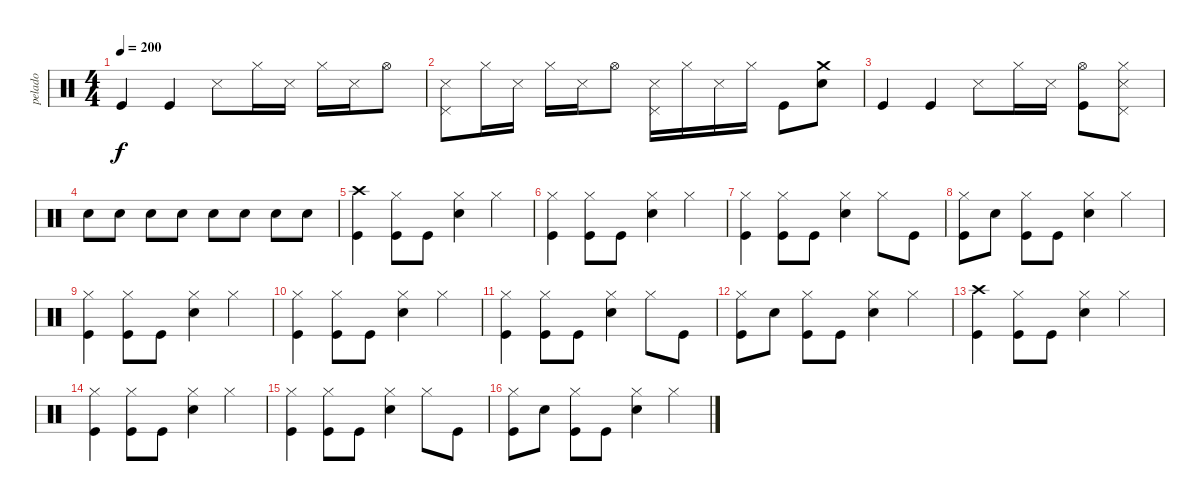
\track ("pelado" "pelado") {instrument percussion}
\staff {score}
\articulation defaults
\ts (4 4)
\tempo 200
\clef neutral
\ks c "Kick (hit)".4{dy f} "Kick (hit)".4 "Snare (side stick) 3".8 "Hi-Hat (closed)".16 "Snare (side stick) 3".16 "Hi-Hat (closed)".16 "Snare (side stick) 3".16 "Hi-Hat (open)".8
|
("Snare (side stick) 3" "Pedal Hi-Hat (hit)").8 "Hi-Hat (closed)".16 "Snare (side stick) 3".16 "Hi-Hat (closed)".16 "Snare (side stick) 3".16 "Hi-Hat (open)".8 ("Snare (side stick) 3" "Pedal Hi-Hat (hit)").16 "Hi-Hat (closed)".16 "Snare (side stick) 3".16 "Hi-Hat (closed)".16 "Kick (hit)".8 ("Crash medium (hit)" "Electric Snare (hit)").8 |
"Kick (hit)".4 "Kick (hit)".4 "Snare (side stick) 3".8 "Hi-Hat (closed)".16 "Snare (side stick) 3".16 ("Hi-Hat (open)" "Kick (hit)").8 ("Hi-Hat (closed)" "Snare (side stick) 3" "Pedal Hi-Hat (hit)").8 |
"Electric Snare (hit)".8 "Electric Snare (hit)".8 "Electric Snare (hit)".8 "Electric Snare (hit)".8 "Electric Snare (hit)".8 "Electric Snare (hit)".8 "Electric Snare (hit)".8 "Electric Snare (hit)".8 |
("Crash high (hit)" "Kick (hit)").4 ("Hi-Hat (closed)" "Kick (hit)").8 "Kick (hit)".8 ("Hi-Hat (closed)" "Electric Snare (hit)").4 "Hi-Hat (closed)".4 |
("Hi-Hat (closed)" "Kick (hit)").4 ("Hi-Hat (closed)" "Kick (hit)").8 "Kick (hit)".8 ("Hi-Hat (closed)" "Electric Snare (hit)").4 "Hi-Hat (closed)".4 |
("Hi-Hat (closed)" "Kick (hit)").4 ("Hi-Hat (closed)" "Kick (hit)").8 "Kick (hit)".8 ("Hi-Hat (closed)" "Electric Snare (hit)").4 "Hi-Hat (closed)".8 "Kick (hit)".8 |
("Hi-Hat (closed)" "Kick (hit)").8 "Electric Snare (hit)".8 ("Hi-Hat (closed)" "Kick (hit)").8 "Kick (hit)".8 ("Hi-Hat (closed)" "Electric Snare (hit)").4 "Hi-Hat (closed)".4 |
("Hi-Hat (closed)" "Kick (hit)").4 ("Hi-Hat (closed)" "Kick (hit)").8 "Kick (hit)".8 ("Hi-Hat (closed)" "Electric Snare (hit)").4 "Hi-Hat (closed)".4 |
("Hi-Hat (closed)" "Kick (hit)").4 ("Hi-Hat (closed)" "Kick (hit)").8 "Kick (hit)".8 ("Hi-Hat (closed)" "Electric Snare (hit)").4 "Hi-Hat (closed)".4 |
("Hi-Hat (closed)" "Kick (hit)").4 ("Hi-Hat (closed)" "Kick (hit)").8 "Kick (hit)".8 ("Hi-Hat (closed)" "Electric Snare (hit)").4 "Hi-Hat (closed)".8 "Kick (hit)".8 |
("Hi-Hat (closed)" "Kick (hit)").8 "Electric Snare (hit)".8 ("Hi-Hat (closed)" "Kick (hit)").8 "Kick (hit)".8 ("Hi-Hat (closed)" "Electric Snare (hit)").4 "Hi-Hat (closed)".4 |
("Crash high (hit)" "Kick (hit)").4 ("Hi-Hat (closed)" "Kick (hit)").8 "Kick (hit)".8 ("Hi-Hat (closed)" "Electric Snare (hit)").4 "Hi-Hat (closed)".4 |
("Hi-Hat (closed)" "Kick (hit)").4 ("Hi-Hat (closed)" "Kick (hit)").8 "Kick (hit)".8 ("Hi-Hat (closed)" "Electric Snare (hit)").4 "Hi-Hat (closed)".4 |
("Hi-Hat (closed)" "Kick (hit)").4 ("Hi-Hat (closed)" "Kick (hit)").8 "Kick (hit)".8 ("Hi-Hat (closed)" "Electric Snare (hit)").4 "Hi-Hat (closed)".8 "Kick (hit)".8 |
("Hi-Hat (closed)" "Kick (hit)").8 "Electric Snare (hit)".8 ("Hi-Hat (closed)" "Kick (hit)").8 "Kick (hit)".8 ("Hi-Hat (closed)" "Electric Snare (hit)").4 "Hi-Hat (closed)".4
